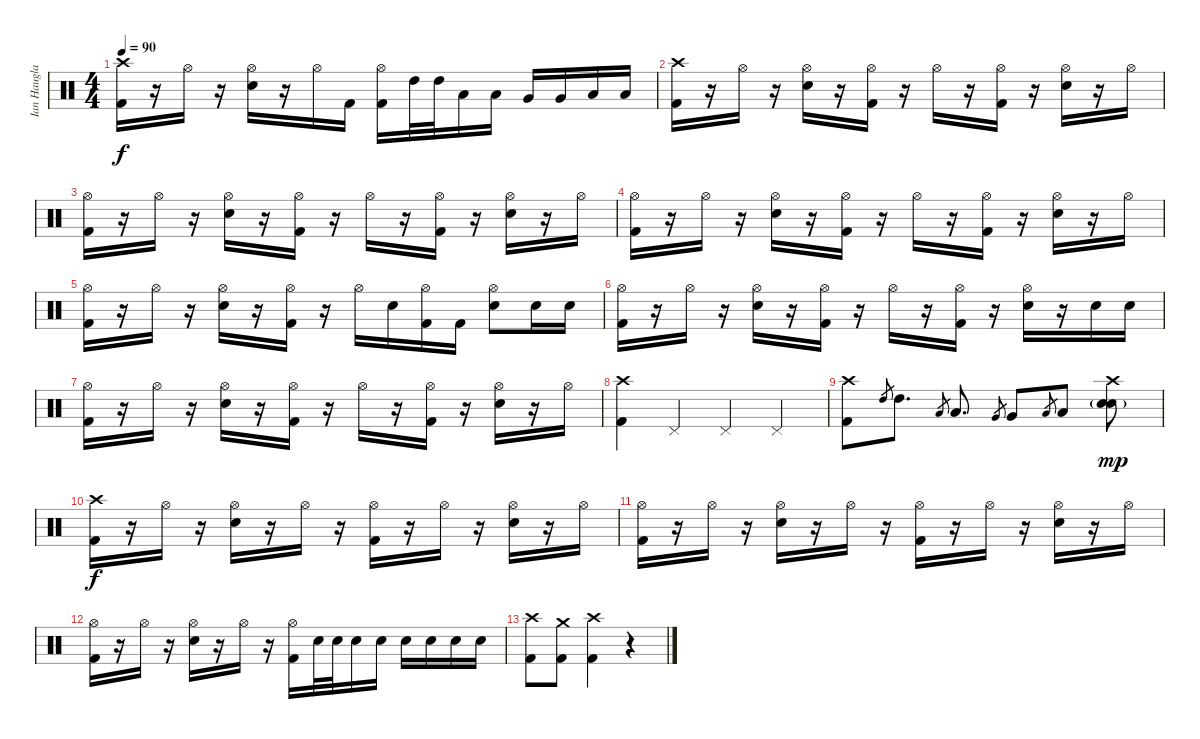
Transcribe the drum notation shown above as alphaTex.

\track ("Ian Haugland" "Ian Haugla") {instrument percussion}
\staff {score}
\articulation defaults
\ts (4 4)
\tempo 90
\clef neutral
\ks c
("Crash high (hit)" "Kick (hit) 2").16{dy f} r.16 "Hi-Hat (open)".16 r.16 ("Hi-Hat (open)" "Electric Snare (hit)").16 r.16 "Hi-Hat (open)".16 "Kick (hit) 2".16 ("Hi-Hat (open)" "Kick (hit) 2").16 "High Tom (hit)".32 "High Tom (hit)".32 "Low Tom (hit)".16 "Low Tom (hit)".16 "Very Low Tom (hit)".16 "Very Low Tom (hit)".16 "Low Floor Tom (hit)".16 "Low Floor Tom (hit)".16 |
("Crash high (hit)" "Kick (hit) 2").16 r.16 "Hi-Hat (open)".16 r.16 ("Hi-Hat (open)" "Electric Snare (hit)").16 r.16 ("Hi-Hat (open)" "Kick (hit) 2").16 r.16 "Hi-Hat (open)".16 r.16 ("Hi-Hat (open)" "Kick (hit) 2").16 r.16 ("Hi-Hat (open)" "Electric Snare (hit)").16 r.16 "Hi-Hat (open)".16 |
("Hi-Hat (open)" "Kick (hit) 2").16 r.16 "Hi-Hat (open)".16 r.16 ("Hi-Hat (open)" "Electric Snare (hit)").16 r.16 ("Hi-Hat (open)" "Kick (hit) 2").16 r.16 "Hi-Hat (open)".16 r.16 ("Hi-Hat (open)" "Kick (hit) 2").16 r.16 ("Hi-Hat (open)" "Electric Snare (hit)").16 r.16 "Hi-Hat (open)".16 |
("Hi-Hat (open)" "Kick (hit) 2").16 r.16 "Hi-Hat (open)".16 r.16 ("Hi-Hat (open)" "Electric Snare (hit)").16 r.16 ("Hi-Hat (open)" "Kick (hit) 2").16 r.16 "Hi-Hat (open)".16 r.16 ("Hi-Hat (open)" "Kick (hit) 2").16 r.16 ("Hi-Hat (open)" "Electric Snare (hit)").16 r.16 "Hi-Hat (open)".16 |
("Hi-Hat (open)" "Kick (hit) 2").16 r.16 "Hi-Hat (open)".16 r.16 ("Hi-Hat (open)" "Electric Snare (hit)").16 r.16 ("Hi-Hat (open)" "Kick (hit) 2").16 r.16 "Hi-Hat (open)".16 "Electric Snare (hit)".16 ("Hi-Hat (open)" "Kick (hit) 2").16 "Kick (hit) 2".16 ("Hi-Hat (open)" "Electric Snare (hit)").8 "Electric Snare (hit)".16 "Electric Snare (hit)".16 |
("Hi-Hat (open)" "Kick (hit) 2").16 r.16 "Hi-Hat (open)".16 r.16 ("Hi-Hat (open)" "Electric Snare (hit)").16 r.16 ("Hi-Hat (open)" "Kick (hit) 2").16 r.16 "Hi-Hat (open)".16 r.16 ("Hi-Hat (open)" "Kick (hit) 2").16 r.16 ("Hi-Hat (open)" "Electric Snare (hit)").16 r.16 "Electric Snare (hit)".16 "Electric Snare (hit)".16 |
("Hi-Hat (open)" "Kick (hit) 2").16 r.16 "Hi-Hat (open)".16 r.16 ("Hi-Hat (open)" "Electric Snare (hit)").16 r.16 ("Hi-Hat (open)" "Kick (hit) 2").16 r.16 "Hi-Hat (open)".16 r.16 ("Hi-Hat (open)" "Kick (hit) 2").16 r.16 ("Hi-Hat (open)" "Electric Snare (hit)").16 r.16 "Hi-Hat (open)".16 |
("Crash high (hit)" "Kick (hit) 2").4 "Pedal Hi-Hat (hit)".4 "Pedal Hi-Hat (hit)".4 "Pedal Hi-Hat (hit)".4 |
("Crash high (hit)" "Kick (hit) 2").8 "High Tom (hit)".8{gr} "High Tom (hit)".8{d} "Low Tom (hit)".8{gr} "Low Tom (hit)".8{d} "Very Low Tom (hit)".8{gr} "Very Low Tom (hit)".8 "Low Floor Tom (hit)".8{gr} "Low Floor Tom (hit)".8 ("Crash high (hit)" "Snare (hit) 2"{g} "Electric Snare (hit)").8{dy mp} |
("Crash high (hit)" "Kick (hit) 2").16{dy f} r.16 "Hi-Hat (open)".16 r.16 ("Hi-Hat (open)" "Electric Snare (hit)").16 r.16 "Hi-Hat (open)".16 r.16 ("Hi-Hat (open)" "Kick (hit) 2").16 r.16 "Hi-Hat (open)".16 r.16 ("Hi-Hat (open)" "Electric Snare (hit)").16 r.16 "Hi-Hat (open)".16 |
("Hi-Hat (open)" "Kick (hit) 2").16 r.16 "Hi-Hat (open)".16 r.16 ("Hi-Hat (open)" "Electric Snare (hit)").16 r.16 "Hi-Hat (open)".16 r.16 ("Hi-Hat (open)" "Kick (hit) 2").16 r.16 "Hi-Hat (open)".16 r.16 ("Hi-Hat (open)" "Electric Snare (hit)").16 r.16 "Hi-Hat (open)".16 |
("Hi-Hat (open)" "Kick (hit) 2").16 r.16 "Hi-Hat (open)".16 r.16 ("Hi-Hat (open)" "Electric Snare (hit)").16 r.16 "Hi-Hat (open)".16 r.16 ("Hi-Hat (open)" "Kick (hit) 2").16 "Electric Snare (hit)".32 "Electric Snare (hit)".32 "Electric Snare (hit)".16 "Electric Snare (hit)".16 "Electric Snare (hit)".16 "Electric Snare (hit)".16 "Electric Snare (hit)".16 "Electric Snare (hit)".16 |
("Crash high (hit)" "Kick (hit) 2").8 ("Crash medium (hit)" "Kick (hit) 2").8 ("Crash high (hit)" "Kick (hit) 2").4 r.4
